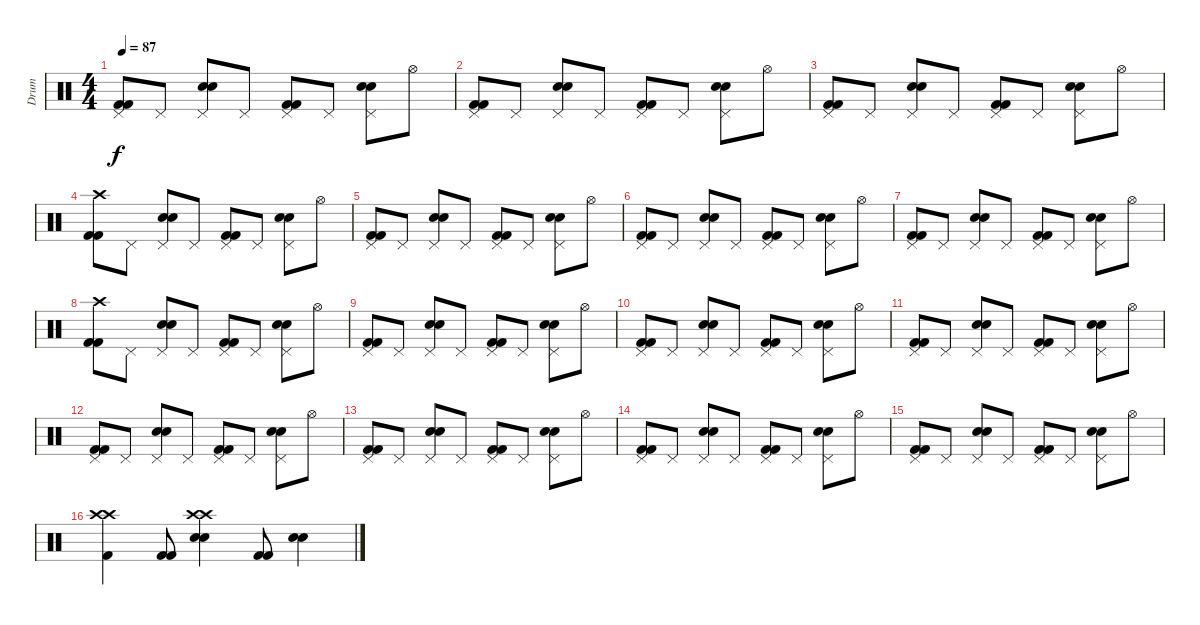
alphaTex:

\track ("Drum" "Drum") {instrument percussion}
\staff {score}
\articulation defaults
\ts (4 4)
\tempo 87
\clef neutral
\ks c
("Pedal Hi-Hat (hit)" "Kick (hit) 2" "Kick (hit) 2").8{dy f} "Pedal Hi-Hat (hit)".8 ("Pedal Hi-Hat (hit)" "Electric Snare (hit)" "Electric Snare (hit)").8 "Pedal Hi-Hat (hit)".8 ("Pedal Hi-Hat (hit)" "Kick (hit) 2" "Kick (hit) 2").8 "Pedal Hi-Hat (hit)".8 ("Pedal Hi-Hat (hit)" "Electric Snare (hit)" "Electric Snare (hit)").8 "Hi-Hat (open)".8 |
("Pedal Hi-Hat (hit)" "Kick (hit) 2" "Kick (hit) 2").8 "Pedal Hi-Hat (hit)".8 ("Pedal Hi-Hat (hit)" "Electric Snare (hit)" "Electric Snare (hit)").8 "Pedal Hi-Hat (hit)".8 ("Pedal Hi-Hat (hit)" "Kick (hit) 2" "Kick (hit) 2").8 "Pedal Hi-Hat (hit)".8 ("Pedal Hi-Hat (hit)" "Electric Snare (hit)" "Electric Snare (hit)").8 "Hi-Hat (open)".8 |
("Pedal Hi-Hat (hit)" "Kick (hit) 2" "Kick (hit) 2").8 "Pedal Hi-Hat (hit)".8 ("Pedal Hi-Hat (hit)" "Electric Snare (hit)" "Electric Snare (hit)").8 "Pedal Hi-Hat (hit)".8 ("Pedal Hi-Hat (hit)" "Kick (hit) 2" "Kick (hit) 2").8 "Pedal Hi-Hat (hit)".8 ("Pedal Hi-Hat (hit)" "Electric Snare (hit)" "Electric Snare (hit)").8 "Hi-Hat (open)".8 |
("Crash high (hit)" "Kick (hit) 2" "Kick (hit) 2").8 "Pedal Hi-Hat (hit)".8 ("Pedal Hi-Hat (hit)" "Electric Snare (hit)" "Electric Snare (hit)").8 "Pedal Hi-Hat (hit)".8 ("Pedal Hi-Hat (hit)" "Kick (hit) 2" "Kick (hit) 2").8 "Pedal Hi-Hat (hit)".8 ("Pedal Hi-Hat (hit)" "Electric Snare (hit)" "Electric Snare (hit)").8 "Hi-Hat (open)".8 |
("Pedal Hi-Hat (hit)" "Kick (hit) 2" "Kick (hit) 2").8 "Pedal Hi-Hat (hit)".8 ("Pedal Hi-Hat (hit)" "Electric Snare (hit)" "Electric Snare (hit)").8 "Pedal Hi-Hat (hit)".8 ("Pedal Hi-Hat (hit)" "Kick (hit) 2" "Kick (hit) 2").8 "Pedal Hi-Hat (hit)".8 ("Pedal Hi-Hat (hit)" "Electric Snare (hit)" "Electric Snare (hit)").8 "Hi-Hat (open)".8 |
("Pedal Hi-Hat (hit)" "Kick (hit) 2" "Kick (hit) 2").8 "Pedal Hi-Hat (hit)".8 ("Pedal Hi-Hat (hit)" "Electric Snare (hit)" "Electric Snare (hit)").8 "Pedal Hi-Hat (hit)".8 ("Pedal Hi-Hat (hit)" "Kick (hit) 2" "Kick (hit) 2").8 "Pedal Hi-Hat (hit)".8 ("Pedal Hi-Hat (hit)" "Electric Snare (hit)" "Electric Snare (hit)").8 "Hi-Hat (open)".8 |
("Pedal Hi-Hat (hit)" "Kick (hit) 2" "Kick (hit) 2").8 "Pedal Hi-Hat (hit)".8 ("Pedal Hi-Hat (hit)" "Electric Snare (hit)" "Electric Snare (hit)").8 "Pedal Hi-Hat (hit)".8 ("Pedal Hi-Hat (hit)" "Kick (hit) 2" "Kick (hit) 2").8 "Pedal Hi-Hat (hit)".8 ("Pedal Hi-Hat (hit)" "Electric Snare (hit)" "Electric Snare (hit)").8 "Hi-Hat (open)".8 |
("Crash high (hit)" "Kick (hit) 2" "Kick (hit) 2").8 "Pedal Hi-Hat (hit)".8 ("Pedal Hi-Hat (hit)" "Electric Snare (hit)" "Electric Snare (hit)").8 "Pedal Hi-Hat (hit)".8 ("Pedal Hi-Hat (hit)" "Kick (hit) 2" "Kick (hit) 2").8 "Pedal Hi-Hat (hit)".8 ("Pedal Hi-Hat (hit)" "Electric Snare (hit)" "Electric Snare (hit)").8 "Hi-Hat (open)".8 |
("Pedal Hi-Hat (hit)" "Kick (hit) 2" "Kick (hit) 2").8 "Pedal Hi-Hat (hit)".8 ("Pedal Hi-Hat (hit)" "Electric Snare (hit)" "Electric Snare (hit)").8 "Pedal Hi-Hat (hit)".8 ("Pedal Hi-Hat (hit)" "Kick (hit) 2" "Kick (hit) 2").8 "Pedal Hi-Hat (hit)".8 ("Pedal Hi-Hat (hit)" "Electric Snare (hit)" "Electric Snare (hit)").8 "Hi-Hat (open)".8 |
("Pedal Hi-Hat (hit)" "Kick (hit) 2" "Kick (hit) 2").8 "Pedal Hi-Hat (hit)".8 ("Pedal Hi-Hat (hit)" "Electric Snare (hit)" "Electric Snare (hit)").8 "Pedal Hi-Hat (hit)".8 ("Pedal Hi-Hat (hit)" "Kick (hit) 2" "Kick (hit) 2").8 "Pedal Hi-Hat (hit)".8 ("Pedal Hi-Hat (hit)" "Electric Snare (hit)" "Electric Snare (hit)").8 "Hi-Hat (open)".8 |
("Pedal Hi-Hat (hit)" "Kick (hit) 2" "Kick (hit) 2").8 "Pedal Hi-Hat (hit)".8 ("Pedal Hi-Hat (hit)" "Electric Snare (hit)" "Electric Snare (hit)").8 "Pedal Hi-Hat (hit)".8 ("Pedal Hi-Hat (hit)" "Kick (hit) 2" "Kick (hit) 2").8 "Pedal Hi-Hat (hit)".8 ("Pedal Hi-Hat (hit)" "Electric Snare (hit)" "Electric Snare (hit)").8 "Hi-Hat (open)".8 |
("Pedal Hi-Hat (hit)" "Kick (hit) 2" "Kick (hit) 2").8 "Pedal Hi-Hat (hit)".8 ("Pedal Hi-Hat (hit)" "Electric Snare (hit)" "Electric Snare (hit)").8 "Pedal Hi-Hat (hit)".8 ("Pedal Hi-Hat (hit)" "Kick (hit) 2" "Kick (hit) 2").8 "Pedal Hi-Hat (hit)".8 ("Pedal Hi-Hat (hit)" "Electric Snare (hit)" "Electric Snare (hit)").8 "Hi-Hat (open)".8 |
("Pedal Hi-Hat (hit)" "Kick (hit) 2" "Kick (hit) 2").8 "Pedal Hi-Hat (hit)".8 ("Pedal Hi-Hat (hit)" "Electric Snare (hit)" "Electric Snare (hit)").8 "Pedal Hi-Hat (hit)".8 ("Pedal Hi-Hat (hit)" "Kick (hit) 2" "Kick (hit) 2").8 "Pedal Hi-Hat (hit)".8 ("Pedal Hi-Hat (hit)" "Electric Snare (hit)" "Electric Snare (hit)").8 "Hi-Hat (open)".8 |
("Pedal Hi-Hat (hit)" "Kick (hit) 2" "Kick (hit) 2").8 "Pedal Hi-Hat (hit)".8 ("Pedal Hi-Hat (hit)" "Electric Snare (hit)" "Electric Snare (hit)").8 "Pedal Hi-Hat (hit)".8 ("Pedal Hi-Hat (hit)" "Kick (hit) 2" "Kick (hit) 2").8 "Pedal Hi-Hat (hit)".8 ("Pedal Hi-Hat (hit)" "Electric Snare (hit)" "Electric Snare (hit)").8 "Hi-Hat (open)".8 |
("Pedal Hi-Hat (hit)" "Kick (hit) 2" "Kick (hit) 2").8 "Pedal Hi-Hat (hit)".8 ("Pedal Hi-Hat (hit)" "Electric Snare (hit)" "Electric Snare (hit)").8 "Pedal Hi-Hat (hit)".8 ("Pedal Hi-Hat (hit)" "Kick (hit) 2" "Kick (hit) 2").8 "Pedal Hi-Hat (hit)".8 ("Pedal Hi-Hat (hit)" "Electric Snare (hit)" "Electric Snare (hit)").8 "Hi-Hat (open)".8 |
("Crash high (hit)" "Crash high (hit)" "Kick (hit) 2").4 ("Kick (hit) 2" "Kick (hit) 2").8 ("Crash high (hit)" "Crash high (hit)" "Electric Snare (hit)" "Electric Snare (hit)").4 ("Kick (hit) 2" "Kick (hit) 2").8 ("Electric Snare (hit)" "Electric Snare (hit)").4
